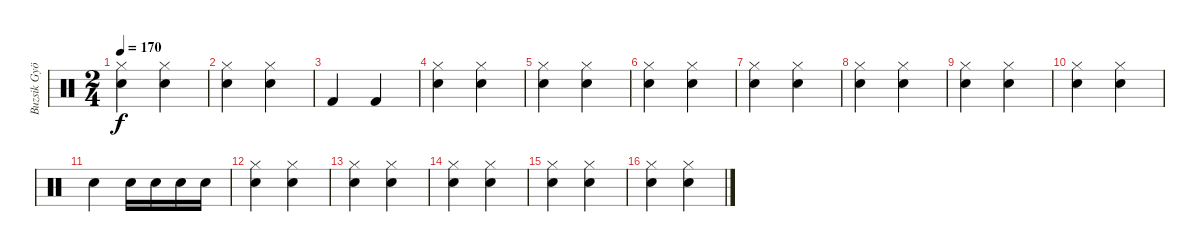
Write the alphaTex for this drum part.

\track ("Buzsik György (dob)" "Buzsik Gyö") {instrument percussion}
\staff {score}
\articulation defaults
\ts (2 4)
\tempo 170
\clef neutral
\ks c
("Hi-Hat (closed)" "Snare (hit) 2").4{dy f} ("Hi-Hat (closed)" "Snare (hit) 2").4 |
("Hi-Hat (closed)" "Snare (hit) 2").4 ("Hi-Hat (closed)" "Snare (hit) 2").4 |
"Kick (hit) 2".4 "Kick (hit) 2".4 |
("Hi-Hat (closed)" "Snare (hit) 2").4 ("Hi-Hat (closed)" "Snare (hit) 2").4 |
("Hi-Hat (closed)" "Snare (hit) 2").4 ("Hi-Hat (closed)" "Snare (hit) 2").4 |
("Hi-Hat (closed)" "Snare (hit) 2").4 ("Hi-Hat (closed)" "Snare (hit) 2").4 |
("Hi-Hat (closed)" "Snare (hit) 2").4 ("Hi-Hat (closed)" "Snare (hit) 2").4 |
("Hi-Hat (closed)" "Snare (hit) 2").4 ("Hi-Hat (closed)" "Snare (hit) 2").4 |
("Hi-Hat (closed)" "Snare (hit) 2").4 ("Hi-Hat (closed)" "Snare (hit) 2").4 |
("Hi-Hat (closed)" "Snare (hit) 2").4 ("Hi-Hat (closed)" "Snare (hit) 2").4 |
"Snare (hit) 2".4 "Snare (hit) 2".16 "Snare (hit) 2".16 "Snare (hit) 2".16 "Snare (hit) 2".16 |
("Hi-Hat (closed)" "Snare (hit) 2").4 ("Hi-Hat (closed)" "Snare (hit) 2").4 |
("Hi-Hat (closed)" "Snare (hit) 2").4 ("Hi-Hat (closed)" "Snare (hit) 2").4 |
("Hi-Hat (closed)" "Snare (hit) 2").4 ("Hi-Hat (closed)" "Snare (hit) 2").4 |
("Hi-Hat (closed)" "Snare (hit) 2").4 ("Hi-Hat (closed)" "Snare (hit) 2").4 |
("Hi-Hat (closed)" "Snare (hit) 2").4 ("Hi-Hat (closed)" "Snare (hit) 2").4
